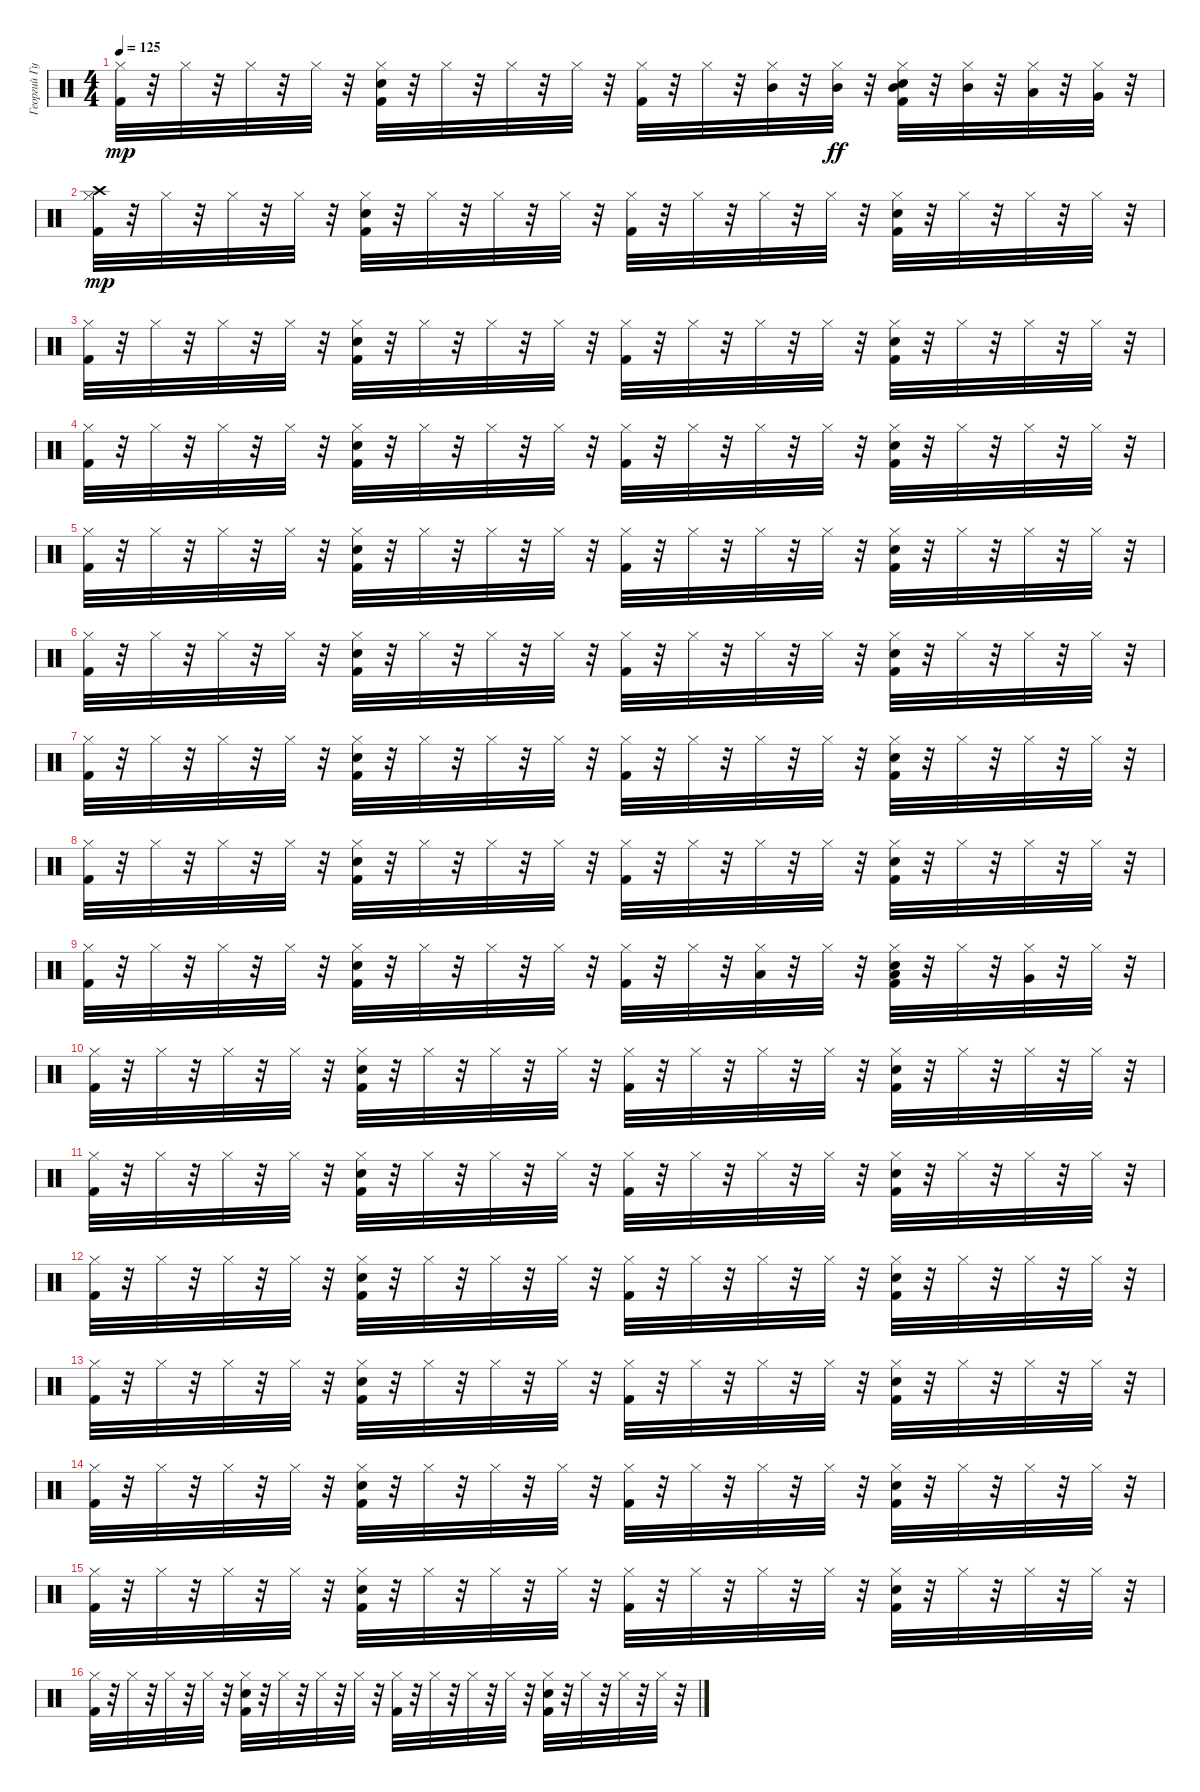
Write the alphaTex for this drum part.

\track ("Георгий Гурьянов" "Георгий Гу") {instrument percussion}
\staff {score}
\articulation defaults
\ts (4 4)
\tempo 125
\clef neutral
\ks c
("Kick (hit) 2" "Hi-Hat (closed)").32{dy mp} r.32 "Hi-Hat (closed)".32 r.32 "Hi-Hat (closed)".32 r.32 "Hi-Hat (closed)".32 r.32 ("Kick (hit) 2" "Snare (hit) 2" "Hi-Hat (closed)").32 r.32 "Hi-Hat (closed)".32 r.32 "Hi-Hat (closed)".32 r.32 "Hi-Hat (closed)".32 r.32 ("Kick (hit) 2" "Hi-Hat (closed)").32 r.32 "Hi-Hat (closed)".32 r.32 ("Mid Tom (hit)" "Hi-Hat (closed)").32 r.32 ("Hi-Hat (closed)" "Mid Tom (hit)").32{dy ff} r.32 ("Kick (hit) 2" "Snare (hit) 2" "Hi-Hat (closed)" "Mid Tom (hit)").32 r.32 ("Hi-Hat (closed)" "Mid Tom (hit)").32 r.32 ("Hi-Hat (closed)" "Low Tom (hit)").32 r.32 ("Hi-Hat (closed)" "Very Low Tom (hit)").32 r.32 |
("Crash high (hit)" "Kick (hit) 2" "Hi-Hat (closed)").32{dy mp} r.32 "Hi-Hat (closed)".32 r.32 "Hi-Hat (closed)".32 r.32 "Hi-Hat (closed)".32 r.32 ("Kick (hit) 2" "Snare (hit) 2" "Hi-Hat (closed)").32 r.32 "Hi-Hat (closed)".32 r.32 "Hi-Hat (closed)".32 r.32 "Hi-Hat (closed)".32 r.32 ("Kick (hit) 2" "Hi-Hat (closed)").32 r.32 "Hi-Hat (closed)".32 r.32 "Hi-Hat (closed)".32 r.32 "Hi-Hat (closed)".32 r.32 ("Kick (hit) 2" "Snare (hit) 2" "Hi-Hat (closed)").32 r.32 "Hi-Hat (closed)".32 r.32 "Hi-Hat (closed)".32 r.32 "Hi-Hat (closed)".32 r.32 |
("Kick (hit) 2" "Hi-Hat (closed)").32 r.32 "Hi-Hat (closed)".32 r.32 "Hi-Hat (closed)".32 r.32 "Hi-Hat (closed)".32 r.32 ("Kick (hit) 2" "Snare (hit) 2" "Hi-Hat (closed)").32 r.32 "Hi-Hat (closed)".32 r.32 "Hi-Hat (closed)".32 r.32 "Hi-Hat (closed)".32 r.32 ("Kick (hit) 2" "Hi-Hat (closed)").32 r.32 "Hi-Hat (closed)".32 r.32 "Hi-Hat (closed)".32 r.32 "Hi-Hat (closed)".32 r.32 ("Kick (hit) 2" "Snare (hit) 2" "Hi-Hat (closed)").32 r.32 "Hi-Hat (closed)".32 r.32 "Hi-Hat (closed)".32 r.32 "Hi-Hat (closed)".32 r.32 |
("Kick (hit) 2" "Hi-Hat (closed)").32 r.32 "Hi-Hat (closed)".32 r.32 "Hi-Hat (closed)".32 r.32 "Hi-Hat (closed)".32 r.32 ("Kick (hit) 2" "Snare (hit) 2" "Hi-Hat (closed)").32 r.32 "Hi-Hat (closed)".32 r.32 "Hi-Hat (closed)".32 r.32 "Hi-Hat (closed)".32 r.32 ("Kick (hit) 2" "Hi-Hat (closed)").32 r.32 "Hi-Hat (closed)".32 r.32 "Hi-Hat (closed)".32 r.32 "Hi-Hat (closed)".32 r.32 ("Kick (hit) 2" "Snare (hit) 2" "Hi-Hat (closed)").32 r.32 "Hi-Hat (closed)".32 r.32 "Hi-Hat (closed)".32 r.32 "Hi-Hat (closed)".32 r.32 |
("Kick (hit) 2" "Hi-Hat (closed)").32 r.32 "Hi-Hat (closed)".32 r.32 "Hi-Hat (closed)".32 r.32 "Hi-Hat (closed)".32 r.32 ("Kick (hit) 2" "Snare (hit) 2" "Hi-Hat (closed)").32 r.32 "Hi-Hat (closed)".32 r.32 "Hi-Hat (closed)".32 r.32 "Hi-Hat (closed)".32 r.32 ("Kick (hit) 2" "Hi-Hat (closed)").32 r.32 "Hi-Hat (closed)".32 r.32 "Hi-Hat (closed)".32 r.32 "Hi-Hat (closed)".32 r.32 ("Kick (hit) 2" "Snare (hit) 2" "Hi-Hat (closed)").32 r.32 "Hi-Hat (closed)".32 r.32 "Hi-Hat (closed)".32 r.32 "Hi-Hat (closed)".32 r.32 |
("Kick (hit) 2" "Hi-Hat (closed)").32 r.32 "Hi-Hat (closed)".32 r.32 "Hi-Hat (closed)".32 r.32 "Hi-Hat (closed)".32 r.32 ("Kick (hit) 2" "Snare (hit) 2" "Hi-Hat (closed)").32 r.32 "Hi-Hat (closed)".32 r.32 "Hi-Hat (closed)".32 r.32 "Hi-Hat (closed)".32 r.32 ("Kick (hit) 2" "Hi-Hat (closed)").32 r.32 "Hi-Hat (closed)".32 r.32 "Hi-Hat (closed)".32 r.32 "Hi-Hat (closed)".32 r.32 ("Kick (hit) 2" "Snare (hit) 2" "Hi-Hat (closed)").32 r.32 "Hi-Hat (closed)".32 r.32 "Hi-Hat (closed)".32 r.32 "Hi-Hat (closed)".32 r.32 |
("Kick (hit) 2" "Hi-Hat (closed)").32 r.32 "Hi-Hat (closed)".32 r.32 "Hi-Hat (closed)".32 r.32 "Hi-Hat (closed)".32 r.32 ("Kick (hit) 2" "Snare (hit) 2" "Hi-Hat (closed)").32 r.32 "Hi-Hat (closed)".32 r.32 "Hi-Hat (closed)".32 r.32 "Hi-Hat (closed)".32 r.32 ("Kick (hit) 2" "Hi-Hat (closed)").32 r.32 "Hi-Hat (closed)".32 r.32 "Hi-Hat (closed)".32 r.32 "Hi-Hat (closed)".32 r.32 ("Kick (hit) 2" "Snare (hit) 2" "Hi-Hat (closed)").32 r.32 "Hi-Hat (closed)".32 r.32 "Hi-Hat (closed)".32 r.32 "Hi-Hat (closed)".32 r.32 |
("Kick (hit) 2" "Hi-Hat (closed)").32 r.32 "Hi-Hat (closed)".32 r.32 "Hi-Hat (closed)".32 r.32 "Hi-Hat (closed)".32 r.32 ("Kick (hit) 2" "Snare (hit) 2" "Hi-Hat (closed)").32 r.32 "Hi-Hat (closed)".32 r.32 "Hi-Hat (closed)".32 r.32 "Hi-Hat (closed)".32 r.32 ("Kick (hit) 2" "Hi-Hat (closed)").32 r.32 "Hi-Hat (closed)".32 r.32 "Hi-Hat (closed)".32 r.32 "Hi-Hat (closed)".32 r.32 ("Kick (hit) 2" "Snare (hit) 2" "Hi-Hat (closed)").32 r.32 "Hi-Hat (closed)".32 r.32 "Hi-Hat (closed)".32 r.32 "Hi-Hat (closed)".32 r.32 |
("Kick (hit) 2" "Hi-Hat (closed)").32 r.32 "Hi-Hat (closed)".32 r.32 "Hi-Hat (closed)".32 r.32 "Hi-Hat (closed)".32 r.32 ("Kick (hit) 2" "Snare (hit) 2" "Hi-Hat (closed)").32 r.32 "Hi-Hat (closed)".32 r.32 "Hi-Hat (closed)".32 r.32 "Hi-Hat (closed)".32 r.32 ("Kick (hit) 2" "Hi-Hat (closed)").32 r.32 "Hi-Hat (closed)".32 r.32 ("Low Tom (hit)" "Hi-Hat (closed)").32 r.32 "Hi-Hat (closed)".32 r.32 ("Low Tom (hit)" "Kick (hit) 2" "Snare (hit) 2" "Hi-Hat (closed)").32 r.32 "Hi-Hat (closed)".32 r.32 ("Very Low Tom (hit)" "Hi-Hat (closed)").32 r.32 "Hi-Hat (closed)".32 r.32 |
("Kick (hit) 2" "Hi-Hat (closed)").32 r.32 "Hi-Hat (closed)".32 r.32 "Hi-Hat (closed)".32 r.32 "Hi-Hat (closed)".32 r.32 ("Kick (hit) 2" "Snare (hit) 2" "Hi-Hat (closed)").32 r.32 "Hi-Hat (closed)".32 r.32 "Hi-Hat (closed)".32 r.32 "Hi-Hat (closed)".32 r.32 ("Kick (hit) 2" "Hi-Hat (closed)").32 r.32 "Hi-Hat (closed)".32 r.32 "Hi-Hat (closed)".32 r.32 "Hi-Hat (closed)".32 r.32 ("Kick (hit) 2" "Snare (hit) 2" "Hi-Hat (closed)").32 r.32 "Hi-Hat (closed)".32 r.32 "Hi-Hat (closed)".32 r.32 "Hi-Hat (closed)".32 r.32 |
("Kick (hit) 2" "Hi-Hat (closed)").32 r.32 "Hi-Hat (closed)".32 r.32 "Hi-Hat (closed)".32 r.32 "Hi-Hat (closed)".32 r.32 ("Kick (hit) 2" "Snare (hit) 2" "Hi-Hat (closed)").32 r.32 "Hi-Hat (closed)".32 r.32 "Hi-Hat (closed)".32 r.32 "Hi-Hat (closed)".32 r.32 ("Kick (hit) 2" "Hi-Hat (closed)").32 r.32 "Hi-Hat (closed)".32 r.32 "Hi-Hat (closed)".32 r.32 "Hi-Hat (closed)".32 r.32 ("Kick (hit) 2" "Snare (hit) 2" "Hi-Hat (closed)").32 r.32 "Hi-Hat (closed)".32 r.32 "Hi-Hat (closed)".32 r.32 "Hi-Hat (closed)".32 r.32 |
("Kick (hit) 2" "Hi-Hat (closed)").32 r.32 "Hi-Hat (closed)".32 r.32 "Hi-Hat (closed)".32 r.32 "Hi-Hat (closed)".32 r.32 ("Kick (hit) 2" "Snare (hit) 2" "Hi-Hat (closed)").32 r.32 "Hi-Hat (closed)".32 r.32 "Hi-Hat (closed)".32 r.32 "Hi-Hat (closed)".32 r.32 ("Kick (hit) 2" "Hi-Hat (closed)").32 r.32 "Hi-Hat (closed)".32 r.32 "Hi-Hat (closed)".32 r.32 "Hi-Hat (closed)".32 r.32 ("Kick (hit) 2" "Snare (hit) 2" "Hi-Hat (closed)").32 r.32 "Hi-Hat (closed)".32 r.32 "Hi-Hat (closed)".32 r.32 "Hi-Hat (closed)".32 r.32 |
("Kick (hit) 2" "Hi-Hat (closed)").32 r.32 "Hi-Hat (closed)".32 r.32 "Hi-Hat (closed)".32 r.32 "Hi-Hat (closed)".32 r.32 ("Kick (hit) 2" "Snare (hit) 2" "Hi-Hat (closed)").32 r.32 "Hi-Hat (closed)".32 r.32 "Hi-Hat (closed)".32 r.32 "Hi-Hat (closed)".32 r.32 ("Kick (hit) 2" "Hi-Hat (closed)").32 r.32 "Hi-Hat (closed)".32 r.32 "Hi-Hat (closed)".32 r.32 "Hi-Hat (closed)".32 r.32 ("Kick (hit) 2" "Snare (hit) 2" "Hi-Hat (closed)").32 r.32 "Hi-Hat (closed)".32 r.32 "Hi-Hat (closed)".32 r.32 "Hi-Hat (closed)".32 r.32 |
("Kick (hit) 2" "Hi-Hat (closed)").32 r.32 "Hi-Hat (closed)".32 r.32 "Hi-Hat (closed)".32 r.32 "Hi-Hat (closed)".32 r.32 ("Kick (hit) 2" "Snare (hit) 2" "Hi-Hat (closed)").32 r.32 "Hi-Hat (closed)".32 r.32 "Hi-Hat (closed)".32 r.32 "Hi-Hat (closed)".32 r.32 ("Kick (hit) 2" "Hi-Hat (closed)").32 r.32 "Hi-Hat (closed)".32 r.32 "Hi-Hat (closed)".32 r.32 "Hi-Hat (closed)".32 r.32 ("Kick (hit) 2" "Snare (hit) 2" "Hi-Hat (closed)").32 r.32 "Hi-Hat (closed)".32 r.32 "Hi-Hat (closed)".32 r.32 "Hi-Hat (closed)".32 r.32 |
("Kick (hit) 2" "Hi-Hat (closed)").32 r.32 "Hi-Hat (closed)".32 r.32 "Hi-Hat (closed)".32 r.32 "Hi-Hat (closed)".32 r.32 ("Kick (hit) 2" "Snare (hit) 2" "Hi-Hat (closed)").32 r.32 "Hi-Hat (closed)".32 r.32 "Hi-Hat (closed)".32 r.32 "Hi-Hat (closed)".32 r.32 ("Kick (hit) 2" "Hi-Hat (closed)").32 r.32 "Hi-Hat (closed)".32 r.32 "Hi-Hat (closed)".32 r.32 "Hi-Hat (closed)".32 r.32 ("Kick (hit) 2" "Snare (hit) 2" "Hi-Hat (closed)").32 r.32 "Hi-Hat (closed)".32 r.32 "Hi-Hat (closed)".32 r.32 "Hi-Hat (closed)".32 r.32 |
("Kick (hit) 2" "Hi-Hat (closed)").32 r.32 "Hi-Hat (closed)".32 r.32 "Hi-Hat (closed)".32 r.32 "Hi-Hat (closed)".32 r.32 ("Kick (hit) 2" "Snare (hit) 2" "Hi-Hat (closed)").32 r.32 "Hi-Hat (closed)".32 r.32 "Hi-Hat (closed)".32 r.32 "Hi-Hat (closed)".32 r.32 ("Kick (hit) 2" "Hi-Hat (closed)").32 r.32 "Hi-Hat (closed)".32 r.32 "Hi-Hat (closed)".32 r.32 "Hi-Hat (closed)".32 r.32 ("Kick (hit) 2" "Snare (hit) 2" "Hi-Hat (closed)").32 r.32 "Hi-Hat (closed)".32 r.32 "Hi-Hat (closed)".32 r.32 "Hi-Hat (closed)".32 r.32
